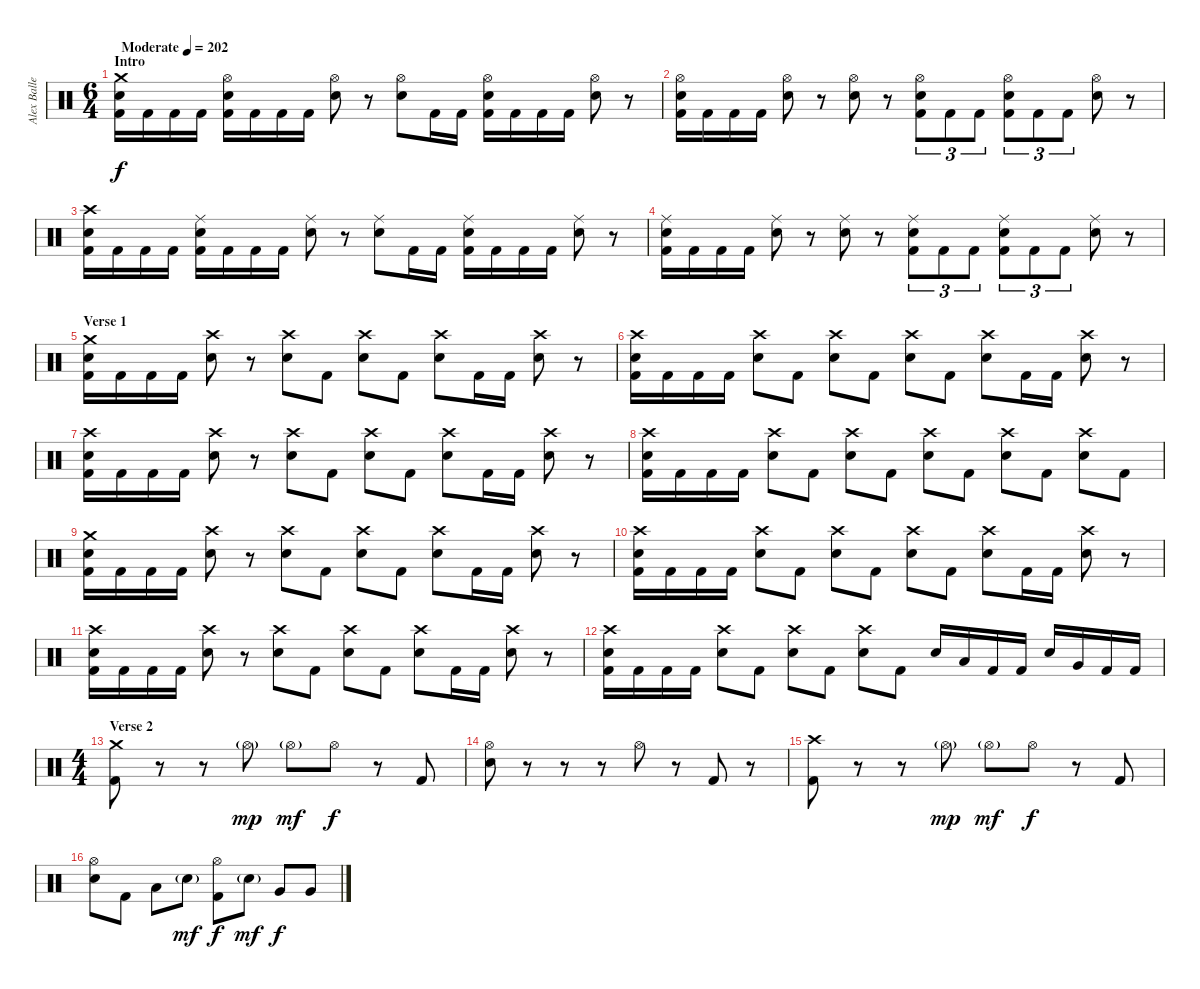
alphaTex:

\track ("Alex Ballew" "Alex Balle") {instrument percussion}
\staff {score}
\articulation defaults
\ts (6 4)
\section ("" "Intro ")
\tempo (202 "Moderate")
\clef neutral
\ks c
("Crash medium (hit)" "Electric Snare (hit)" "Kick (hit) 2").16{dy f} "Kick (hit) 2".16 "Kick (hit) 2".16 "Kick (hit) 2".16 ("Hi-Hat (open)" "Electric Snare (hit)" "Kick (hit) 2").16 "Kick (hit) 2".16 "Kick (hit) 2".16 "Kick (hit) 2".16 ("Hi-Hat (open)" "Electric Snare (hit)").8 r.8 ("Hi-Hat (open)" "Electric Snare (hit)").8 "Kick (hit) 2".16 "Kick (hit) 2".16 ("Hi-Hat (open)" "Electric Snare (hit)" "Kick (hit) 2").16 "Kick (hit) 2".16 "Kick (hit) 2".16 "Kick (hit) 2".16 ("Hi-Hat (open)" "Electric Snare (hit)").8 r.8 |
("Hi-Hat (open)" "Electric Snare (hit)" "Kick (hit) 2").16 "Kick (hit) 2".16 "Kick (hit) 2".16 "Kick (hit) 2".16 ("Hi-Hat (open)" "Electric Snare (hit)").8 r.8 ("Hi-Hat (open)" "Electric Snare (hit)").8 r.8 ("Hi-Hat (open)" "Electric Snare (hit)" "Kick (hit) 2").8{tu (3 2)} "Kick (hit) 2".8{tu (3 2)} "Kick (hit) 2".8{tu (3 2)} ("Hi-Hat (open)" "Electric Snare (hit)" "Kick (hit) 2").8{tu (3 2)} "Kick (hit) 2".8{tu (3 2)} "Kick (hit) 2".8{tu (3 2)} ("Hi-Hat (open)" "Electric Snare (hit)").8 r.8 |
("Crash high (hit)" "Electric Snare (hit)" "Kick (hit) 2").16 "Kick (hit) 2".16 "Kick (hit) 2".16 "Kick (hit) 2".16 ("Ride (middle)" "Electric Snare (hit)" "Kick (hit) 2").16 "Kick (hit) 2".16 "Kick (hit) 2".16 "Kick (hit) 2".16 ("Ride (middle)" "Electric Snare (hit)").8 r.8 ("Ride (middle)" "Electric Snare (hit)").8 "Kick (hit) 2".16 "Kick (hit) 2".16 ("Ride (middle)" "Electric Snare (hit)" "Kick (hit) 2").16 "Kick (hit) 2".16 "Kick (hit) 2".16 "Kick (hit) 2".16 ("Ride (middle)" "Electric Snare (hit)").8 r.8 |
("Ride (middle)" "Electric Snare (hit)" "Kick (hit) 2").16 "Kick (hit) 2".16 "Kick (hit) 2".16 "Kick (hit) 2".16 ("Ride (middle)" "Electric Snare (hit)").8 r.8 ("Ride (middle)" "Electric Snare (hit)").8 r.8 ("Ride (middle)" "Electric Snare (hit)" "Kick (hit) 2").8{tu (3 2)} "Kick (hit) 2".8{tu (3 2)} "Kick (hit) 2".8{tu (3 2)} ("Ride (middle)" "Electric Snare (hit)" "Kick (hit) 2").8{tu (3 2)} "Kick (hit) 2".8{tu (3 2)} "Kick (hit) 2".8{tu (3 2)} ("Ride (middle)" "Electric Snare (hit)").8 r.8 |
\section ("" "Verse 1")
("Crash medium (hit)" "Electric Snare (hit)" "Kick (hit) 2").16 "Kick (hit) 2".16 "Kick (hit) 2".16 "Kick (hit) 2".16 ("Crash high (hit)" "Electric Snare (hit)").8 r.8 ("Crash high (hit)" "Electric Snare (hit)").8 "Kick (hit) 2".8 ("Crash high (hit)" "Electric Snare (hit)").8 "Kick (hit) 2".8 ("Crash high (hit)" "Electric Snare (hit)").8 "Kick (hit) 2".16 "Kick (hit) 2".16 ("Crash high (hit)" "Electric Snare (hit)").8 r.8 |
("Crash high (hit)" "Electric Snare (hit)" "Kick (hit) 2").16 "Kick (hit) 2".16 "Kick (hit) 2".16 "Kick (hit) 2".16 ("Crash high (hit)" "Electric Snare (hit)").8 "Kick (hit) 2".8 ("Crash high (hit)" "Electric Snare (hit)").8 "Kick (hit) 2".8 ("Crash high (hit)" "Electric Snare (hit)").8 "Kick (hit) 2".8 ("Crash high (hit)" "Electric Snare (hit)").8 "Kick (hit) 2".16 "Kick (hit) 2".16 ("Crash high (hit)" "Electric Snare (hit)").8 r.8 |
("Crash high (hit)" "Electric Snare (hit)" "Kick (hit) 2").16 "Kick (hit) 2".16 "Kick (hit) 2".16 "Kick (hit) 2".16 ("Crash high (hit)" "Electric Snare (hit)").8 r.8 ("Crash high (hit)" "Electric Snare (hit)").8 "Kick (hit) 2".8 ("Crash high (hit)" "Electric Snare (hit)").8 "Kick (hit) 2".8 ("Crash high (hit)" "Electric Snare (hit)").8 "Kick (hit) 2".16 "Kick (hit) 2".16 ("Crash high (hit)" "Electric Snare (hit)").8 r.8 |
("Crash high (hit)" "Electric Snare (hit)" "Kick (hit) 2").16 "Kick (hit) 2".16 "Kick (hit) 2".16 "Kick (hit) 2".16 ("Crash high (hit)" "Electric Snare (hit)").8 "Kick (hit) 2".8 ("Crash high (hit)" "Electric Snare (hit)").8 "Kick (hit) 2".8 ("Crash high (hit)" "Electric Snare (hit)").8 "Kick (hit) 2".8 ("Crash high (hit)" "Electric Snare (hit)").8 "Kick (hit) 2".8 ("Crash high (hit)" "Electric Snare (hit)").8 "Kick (hit) 2".8 |
("Crash medium (hit)" "Electric Snare (hit)" "Kick (hit) 2").16 "Kick (hit) 2".16 "Kick (hit) 2".16 "Kick (hit) 2".16 ("Crash high (hit)" "Electric Snare (hit)").8 r.8 ("Crash high (hit)" "Electric Snare (hit)").8 "Kick (hit) 2".8 ("Crash high (hit)" "Electric Snare (hit)").8 "Kick (hit) 2".8 ("Crash high (hit)" "Electric Snare (hit)").8 "Kick (hit) 2".16 "Kick (hit) 2".16 ("Crash high (hit)" "Electric Snare (hit)").8 r.8 |
("Crash high (hit)" "Electric Snare (hit)" "Kick (hit) 2").16 "Kick (hit) 2".16 "Kick (hit) 2".16 "Kick (hit) 2".16 ("Crash high (hit)" "Electric Snare (hit)").8 "Kick (hit) 2".8 ("Crash high (hit)" "Electric Snare (hit)").8 "Kick (hit) 2".8 ("Crash high (hit)" "Electric Snare (hit)").8 "Kick (hit) 2".8 ("Crash high (hit)" "Electric Snare (hit)").8 "Kick (hit) 2".16 "Kick (hit) 2".16 ("Crash high (hit)" "Electric Snare (hit)").8 r.8 |
("Crash high (hit)" "Electric Snare (hit)" "Kick (hit) 2").16 "Kick (hit) 2".16 "Kick (hit) 2".16 "Kick (hit) 2".16 ("Crash high (hit)" "Electric Snare (hit)").8 r.8 ("Crash high (hit)" "Electric Snare (hit)").8 "Kick (hit) 2".8 ("Crash high (hit)" "Electric Snare (hit)").8 "Kick (hit) 2".8 ("Crash high (hit)" "Electric Snare (hit)").8 "Kick (hit) 2".16 "Kick (hit) 2".16 ("Crash high (hit)" "Electric Snare (hit)").8 r.8 |
("Crash high (hit)" "Electric Snare (hit)" "Kick (hit) 2").16 "Kick (hit) 2".16 "Kick (hit) 2".16 "Kick (hit) 2".16 ("Crash high (hit)" "Electric Snare (hit)").8 "Kick (hit) 2".8 ("Crash high (hit)" "Electric Snare (hit)").8 "Kick (hit) 2".8 ("Crash high (hit)" "Electric Snare (hit)").8 "Kick (hit) 2".8 "Electric Snare (hit)".16 "Low Tom (hit)".16 "Kick (hit) 2".16 "Kick (hit) 2".16 "Electric Snare (hit)".16 "Very Low Tom (hit)".16 "Kick (hit) 2".16 "Kick (hit) 2".16 |
\ts (4 4)
\section ("" "Verse 2")
("Crash medium (hit)" "Kick (hit) 2").8 r.8 r.8 "Hi-Hat (open)"{g}.8{dy mp} "Hi-Hat (open)"{g}.8{dy mf} "Hi-Hat (open)".8{dy f} r.8 "Kick (hit) 2".8 |
("Hi-Hat (open)" "Electric Snare (hit)").8 r.8 r.8 r.8 "Hi-Hat (open)".8 r.8 "Kick (hit) 2".8 r.8 |
("Crash high (hit)" "Kick (hit) 2").8 r.8 r.8 "Hi-Hat (open)"{g}.8{dy mp} "Hi-Hat (open)"{g}.8{dy mf} "Hi-Hat (open)".8{dy f} r.8 "Kick (hit) 2".8 |
("Hi-Hat (open)" "Electric Snare (hit)").8 "Kick (hit) 2".8 "Low Tom (hit)".8 "Snare (hit) 2"{g}.8{dy mf} ("Hi-Hat (open)" "Kick (hit) 2").8{dy f} "Snare (hit) 2"{g}.8{dy mf} "Very Low Tom (hit)".8{dy f} "Very Low Tom (hit)".8
